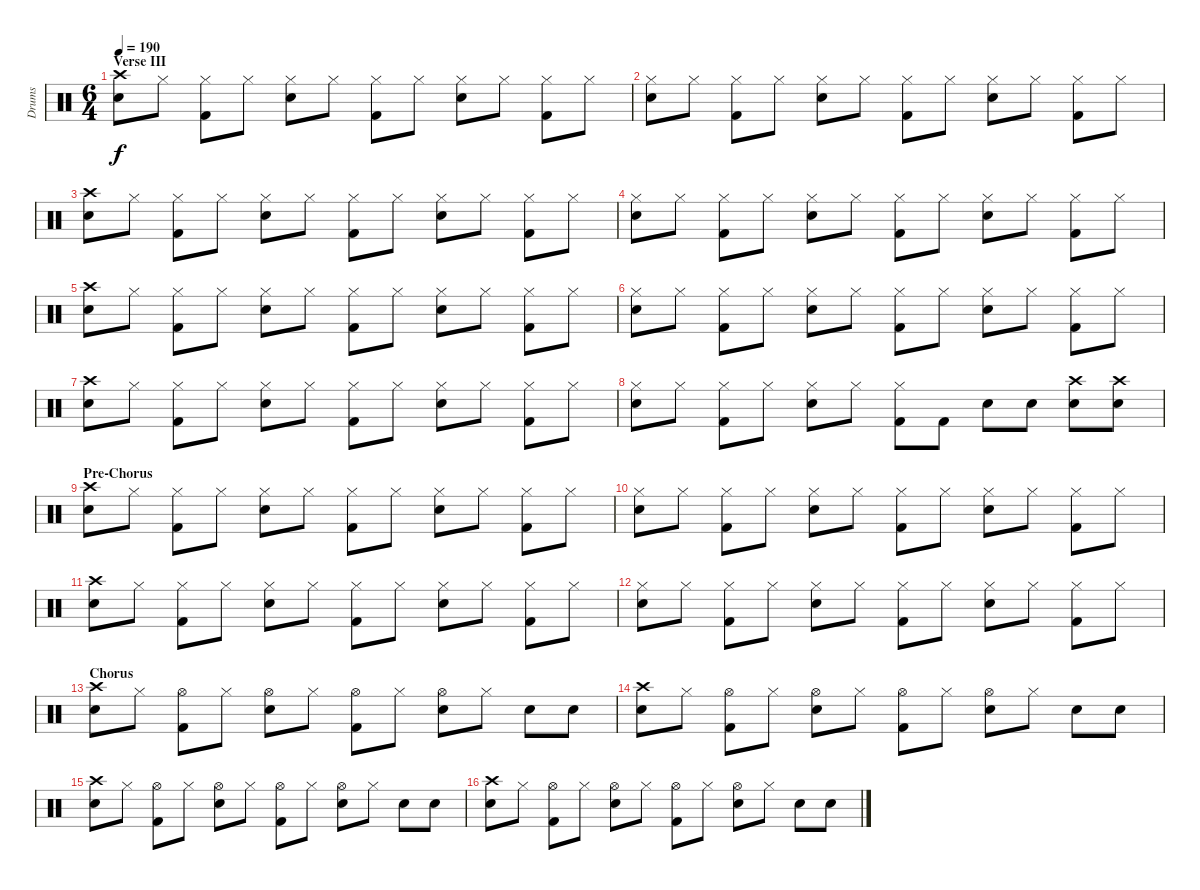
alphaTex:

\track ("Drums" "Drums") {instrument percussion}
\staff {score}
\articulation defaults
\ts (6 4)
\section ("" "Verse III")
\tempo 190
\clef neutral
\ks c
("Crash high (hit)" "Snare (hit) 2").8{dy f} "Hi-Hat (closed)".8 ("Hi-Hat (closed)" "Kick (hit) 2").8 "Hi-Hat (closed)".8 ("Hi-Hat (closed)" "Snare (hit) 2").8 "Hi-Hat (closed)".8 ("Hi-Hat (closed)" "Kick (hit) 2").8 "Hi-Hat (closed)".8 ("Hi-Hat (closed)" "Snare (hit) 2").8 "Hi-Hat (closed)".8 ("Hi-Hat (closed)" "Kick (hit) 2").8 "Hi-Hat (closed)".8 |
("Hi-Hat (closed)" "Snare (hit) 2").8 "Hi-Hat (closed)".8 ("Hi-Hat (closed)" "Kick (hit) 2").8 "Hi-Hat (closed)".8 ("Hi-Hat (closed)" "Snare (hit) 2").8 "Hi-Hat (closed)".8 ("Hi-Hat (closed)" "Kick (hit) 2").8 "Hi-Hat (closed)".8 ("Hi-Hat (closed)" "Snare (hit) 2").8 "Hi-Hat (closed)".8 ("Hi-Hat (closed)" "Kick (hit) 2").8 "Hi-Hat (closed)".8 |
("Crash high (hit)" "Snare (hit) 2").8 "Hi-Hat (closed)".8 ("Hi-Hat (closed)" "Kick (hit) 2").8 "Hi-Hat (closed)".8 ("Hi-Hat (closed)" "Snare (hit) 2").8 "Hi-Hat (closed)".8 ("Hi-Hat (closed)" "Kick (hit) 2").8 "Hi-Hat (closed)".8 ("Hi-Hat (closed)" "Snare (hit) 2").8 "Hi-Hat (closed)".8 ("Hi-Hat (closed)" "Kick (hit) 2").8 "Hi-Hat (closed)".8 |
("Hi-Hat (closed)" "Snare (hit) 2").8 "Hi-Hat (closed)".8 ("Hi-Hat (closed)" "Kick (hit) 2").8 "Hi-Hat (closed)".8 ("Hi-Hat (closed)" "Snare (hit) 2").8 "Hi-Hat (closed)".8 ("Hi-Hat (closed)" "Kick (hit) 2").8 "Hi-Hat (closed)".8 ("Hi-Hat (closed)" "Snare (hit) 2").8 "Hi-Hat (closed)".8 ("Hi-Hat (closed)" "Kick (hit) 2").8 "Hi-Hat (closed)".8 |
("Crash high (hit)" "Snare (hit) 2").8 "Hi-Hat (closed)".8 ("Hi-Hat (closed)" "Kick (hit) 2").8 "Hi-Hat (closed)".8 ("Hi-Hat (closed)" "Snare (hit) 2").8 "Hi-Hat (closed)".8 ("Hi-Hat (closed)" "Kick (hit) 2").8 "Hi-Hat (closed)".8 ("Hi-Hat (closed)" "Snare (hit) 2").8 "Hi-Hat (closed)".8 ("Hi-Hat (closed)" "Kick (hit) 2").8 "Hi-Hat (closed)".8 |
("Hi-Hat (closed)" "Snare (hit) 2").8 "Hi-Hat (closed)".8 ("Hi-Hat (closed)" "Kick (hit) 2").8 "Hi-Hat (closed)".8 ("Hi-Hat (closed)" "Snare (hit) 2").8 "Hi-Hat (closed)".8 ("Hi-Hat (closed)" "Kick (hit) 2").8 "Hi-Hat (closed)".8 ("Hi-Hat (closed)" "Snare (hit) 2").8 "Hi-Hat (closed)".8 ("Hi-Hat (closed)" "Kick (hit) 2").8 "Hi-Hat (closed)".8 |
("Crash high (hit)" "Snare (hit) 2").8 "Hi-Hat (closed)".8 ("Hi-Hat (closed)" "Kick (hit) 2").8 "Hi-Hat (closed)".8 ("Hi-Hat (closed)" "Snare (hit) 2").8 "Hi-Hat (closed)".8 ("Hi-Hat (closed)" "Kick (hit) 2").8 "Hi-Hat (closed)".8 ("Hi-Hat (closed)" "Snare (hit) 2").8 "Hi-Hat (closed)".8 ("Hi-Hat (closed)" "Kick (hit) 2").8 "Hi-Hat (closed)".8 |
("Hi-Hat (closed)" "Snare (hit) 2").8 "Hi-Hat (closed)".8 ("Hi-Hat (closed)" "Kick (hit) 2").8 "Hi-Hat (closed)".8 ("Hi-Hat (closed)" "Snare (hit) 2").8 "Hi-Hat (closed)".8 ("Hi-Hat (closed)" "Kick (hit) 2").8 "Kick (hit) 2".8 "Snare (hit) 2".8 "Snare (hit) 2".8 ("Crash high (hit)" "Electric Snare (hit)").8 ("Crash high (hit)" "Electric Snare (hit)").8 |
\section ("" "Pre-Chorus")
("Crash high (hit)" "Snare (hit) 2").8 "Hi-Hat (closed)".8 ("Hi-Hat (closed)" "Kick (hit) 2").8 "Hi-Hat (closed)".8 ("Hi-Hat (closed)" "Snare (hit) 2").8 "Hi-Hat (closed)".8 ("Hi-Hat (closed)" "Kick (hit) 2").8 "Hi-Hat (closed)".8 ("Hi-Hat (closed)" "Snare (hit) 2").8 "Hi-Hat (closed)".8 ("Hi-Hat (closed)" "Kick (hit) 2").8 "Hi-Hat (closed)".8 |
("Hi-Hat (closed)" "Snare (hit) 2").8 "Hi-Hat (closed)".8 ("Hi-Hat (closed)" "Kick (hit) 2").8 "Hi-Hat (closed)".8 ("Hi-Hat (closed)" "Snare (hit) 2").8 "Hi-Hat (closed)".8 ("Hi-Hat (closed)" "Kick (hit) 2").8 "Hi-Hat (closed)".8 ("Hi-Hat (closed)" "Snare (hit) 2").8 "Hi-Hat (closed)".8 ("Hi-Hat (closed)" "Kick (hit) 2").8 "Hi-Hat (closed)".8 |
("Crash high (hit)" "Snare (hit) 2").8 "Hi-Hat (closed)".8 ("Hi-Hat (closed)" "Kick (hit) 2").8 "Hi-Hat (closed)".8 ("Hi-Hat (closed)" "Snare (hit) 2").8 "Hi-Hat (closed)".8 ("Hi-Hat (closed)" "Kick (hit) 2").8 "Hi-Hat (closed)".8 ("Hi-Hat (closed)" "Snare (hit) 2").8 "Hi-Hat (closed)".8 ("Hi-Hat (closed)" "Kick (hit) 2").8 "Hi-Hat (closed)".8 |
("Hi-Hat (closed)" "Snare (hit) 2").8 "Hi-Hat (closed)".8 ("Hi-Hat (closed)" "Kick (hit) 2").8 "Hi-Hat (closed)".8 ("Hi-Hat (closed)" "Snare (hit) 2").8 "Hi-Hat (closed)".8 ("Hi-Hat (closed)" "Kick (hit) 2").8 "Hi-Hat (closed)".8 ("Hi-Hat (closed)" "Snare (hit) 2").8 "Hi-Hat (closed)".8 ("Hi-Hat (closed)" "Kick (hit) 2").8 "Hi-Hat (closed)".8 |
\section ("" "Chorus")
("Crash high (hit)" "Snare (hit) 2").8 "Hi-Hat (closed)".8 ("Hi-Hat (open)" "Kick (hit) 2").8 "Hi-Hat (closed)".8 ("Hi-Hat (open)" "Snare (hit) 2").8 "Hi-Hat (closed)".8 ("Hi-Hat (open)" "Kick (hit) 2").8 "Hi-Hat (closed)".8 ("Hi-Hat (open)" "Snare (hit) 2").8 "Hi-Hat (closed)".8 "Snare (hit) 2".8 "Snare (hit) 2".8 |
("Crash high (hit)" "Snare (hit) 2").8 "Hi-Hat (closed)".8 ("Hi-Hat (open)" "Kick (hit) 2").8 "Hi-Hat (closed)".8 ("Hi-Hat (open)" "Snare (hit) 2").8 "Hi-Hat (closed)".8 ("Hi-Hat (open)" "Kick (hit) 2").8 "Hi-Hat (closed)".8 ("Hi-Hat (open)" "Snare (hit) 2").8 "Hi-Hat (closed)".8 "Snare (hit) 2".8 "Snare (hit) 2".8 |
("Crash high (hit)" "Snare (hit) 2").8 "Hi-Hat (closed)".8 ("Hi-Hat (open)" "Kick (hit) 2").8 "Hi-Hat (closed)".8 ("Hi-Hat (open)" "Snare (hit) 2").8 "Hi-Hat (closed)".8 ("Hi-Hat (open)" "Kick (hit) 2").8 "Hi-Hat (closed)".8 ("Hi-Hat (open)" "Snare (hit) 2").8 "Hi-Hat (closed)".8 "Snare (hit) 2".8 "Snare (hit) 2".8 |
("Crash high (hit)" "Snare (hit) 2").8 "Hi-Hat (closed)".8 ("Hi-Hat (open)" "Kick (hit) 2").8 "Hi-Hat (closed)".8 ("Hi-Hat (open)" "Snare (hit) 2").8 "Hi-Hat (closed)".8 ("Hi-Hat (open)" "Kick (hit) 2").8 "Hi-Hat (closed)".8 ("Hi-Hat (open)" "Snare (hit) 2").8 "Hi-Hat (closed)".8 "Snare (hit) 2".8 "Snare (hit) 2".8
